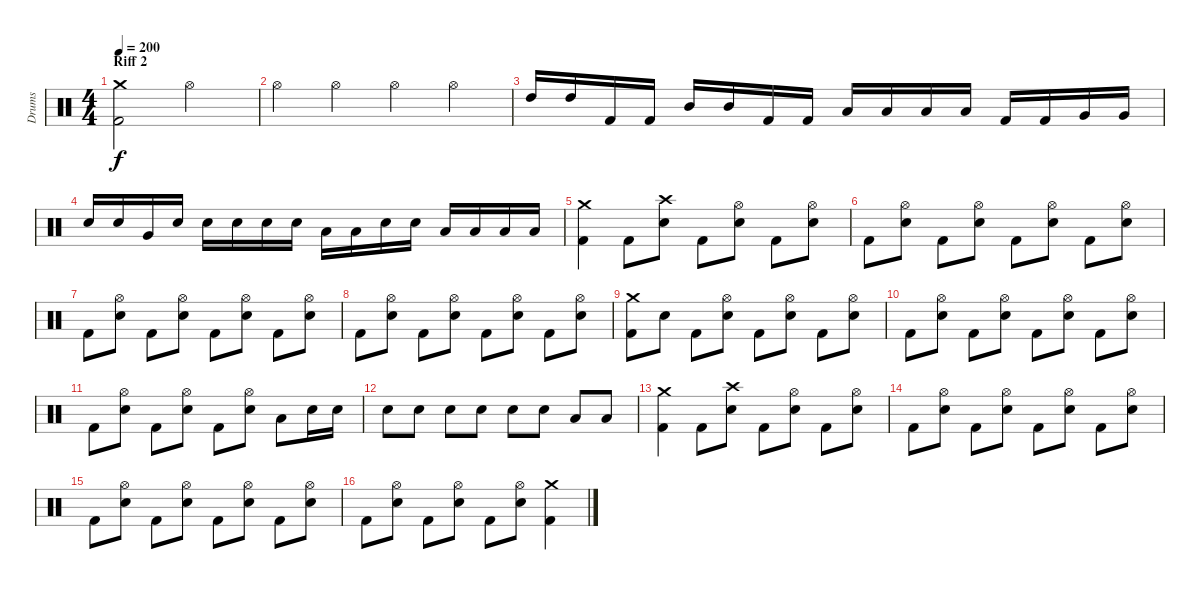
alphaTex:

\track ("Drums" "Drums") {instrument percussion}
\staff {score}
\articulation defaults
\ts (4 4)
\section ("" "Riff 2")
\tempo 200
\clef neutral
\ks c
("Crash medium (hit)" "Kick (hit) 2").2{dy f} "Hi-Hat (open)".2 |
"Hi-Hat (open)".4 "Hi-Hat (open)".4 "Hi-Hat (open)".4 "Hi-Hat (open)".4 |
"High Tom (hit)".16 "High Tom (hit)".16 "Kick (hit) 2".16 "Kick (hit) 2".16 "Mid Tom (hit)".16 "Mid Tom (hit)".16 "Kick (hit) 2".16 "Kick (hit) 2".16 "Low Tom (hit)".16 "Low Tom (hit)".16 "Low Tom (hit)".16 "Low Tom (hit)".16 "Kick (hit) 2".16 "Kick (hit) 2".16 "Very Low Tom (hit)".16 "Very Low Tom (hit)".16 |
"Electric Snare (hit)".16 "Electric Snare (hit)".16 "Very Low Tom (hit)".16 "Electric Snare (hit)".16 "Electric Snare (hit)".16 "Electric Snare (hit)".16 "Electric Snare (hit)".16 "Electric Snare (hit)".16 "Low Tom (hit)".16 "Low Tom (hit)".16 "Electric Snare (hit)".16 "Electric Snare (hit)".16 "Low Tom (hit)".16 "Low Tom (hit)".16 "Low Floor Tom (hit)".16 "Low Floor Tom (hit)".16 |
("Crash medium (hit)" "Kick (hit) 2").4 "Kick (hit) 2".8 ("Crash high (hit)" "Electric Snare (hit)").8 "Kick (hit) 2".8 ("Hi-Hat (open)" "Electric Snare (hit)").8 "Kick (hit) 2".8 ("Hi-Hat (open)" "Electric Snare (hit)").8 |
"Kick (hit) 2".8 ("Hi-Hat (open)" "Electric Snare (hit)").8 "Kick (hit) 2".8 ("Hi-Hat (open)" "Electric Snare (hit)").8 "Kick (hit) 2".8 ("Hi-Hat (open)" "Electric Snare (hit)").8 "Kick (hit) 2".8 ("Hi-Hat (open)" "Electric Snare (hit)").8 |
"Kick (hit) 2".8 ("Hi-Hat (open)" "Electric Snare (hit)").8 "Kick (hit) 2".8 ("Hi-Hat (open)" "Electric Snare (hit)").8 "Kick (hit) 2".8 ("Hi-Hat (open)" "Electric Snare (hit)").8 "Kick (hit) 2".8 ("Hi-Hat (open)" "Electric Snare (hit)").8 |
"Kick (hit) 2".8 ("Hi-Hat (open)" "Electric Snare (hit)").8 "Kick (hit) 2".8 ("Hi-Hat (open)" "Electric Snare (hit)").8 "Kick (hit) 2".8 ("Hi-Hat (open)" "Electric Snare (hit)").8 "Kick (hit) 2".8 ("Hi-Hat (open)" "Electric Snare (hit)").8 |
("Crash medium (hit)" "Kick (hit) 2").8 "Electric Snare (hit)".8 "Kick (hit) 2".8 ("Hi-Hat (open)" "Electric Snare (hit)").8 "Kick (hit) 2".8 ("Hi-Hat (open)" "Electric Snare (hit)").8 "Kick (hit) 2".8 ("Hi-Hat (open)" "Electric Snare (hit)").8 |
"Kick (hit) 2".8 ("Hi-Hat (open)" "Electric Snare (hit)").8 "Kick (hit) 2".8 ("Hi-Hat (open)" "Electric Snare (hit)").8 "Kick (hit) 2".8 ("Hi-Hat (open)" "Electric Snare (hit)").8 "Kick (hit) 2".8 ("Hi-Hat (open)" "Electric Snare (hit)").8 |
"Kick (hit) 2".8 ("Hi-Hat (open)" "Electric Snare (hit)").8 "Kick (hit) 2".8 ("Hi-Hat (open)" "Electric Snare (hit)").8 "Kick (hit) 2".8 ("Hi-Hat (open)" "Electric Snare (hit)").8 "Low Tom (hit)".8 "Electric Snare (hit)".16 "Electric Snare (hit)".16 |
"Electric Snare (hit)".8 "Electric Snare (hit)".8 "Electric Snare (hit)".8 "Electric Snare (hit)".8 "Electric Snare (hit)".8 "Electric Snare (hit)".8 "Low Tom (hit)".8 "Low Tom (hit)".8 |
("Crash medium (hit)" "Kick (hit) 2").4 "Kick (hit) 2".8 ("Crash high (hit)" "Electric Snare (hit)").8 "Kick (hit) 2".8 ("Hi-Hat (open)" "Electric Snare (hit)").8 "Kick (hit) 2".8 ("Hi-Hat (open)" "Electric Snare (hit)").8 |
"Kick (hit) 2".8 ("Hi-Hat (open)" "Electric Snare (hit)").8 "Kick (hit) 2".8 ("Hi-Hat (open)" "Electric Snare (hit)").8 "Kick (hit) 2".8 ("Hi-Hat (open)" "Electric Snare (hit)").8 "Kick (hit) 2".8 ("Hi-Hat (open)" "Electric Snare (hit)").8 |
"Kick (hit) 2".8 ("Hi-Hat (open)" "Electric Snare (hit)").8 "Kick (hit) 2".8 ("Hi-Hat (open)" "Electric Snare (hit)").8 "Kick (hit) 2".8 ("Hi-Hat (open)" "Electric Snare (hit)").8 "Kick (hit) 2".8 ("Hi-Hat (open)" "Electric Snare (hit)").8 |
"Kick (hit) 2".8 ("Hi-Hat (open)" "Electric Snare (hit)").8 "Kick (hit) 2".8 ("Hi-Hat (open)" "Electric Snare (hit)").8 "Kick (hit) 2".8 ("Hi-Hat (open)" "Electric Snare (hit)").8 ("Kick (hit) 2" "Crash medium (hit)").4
